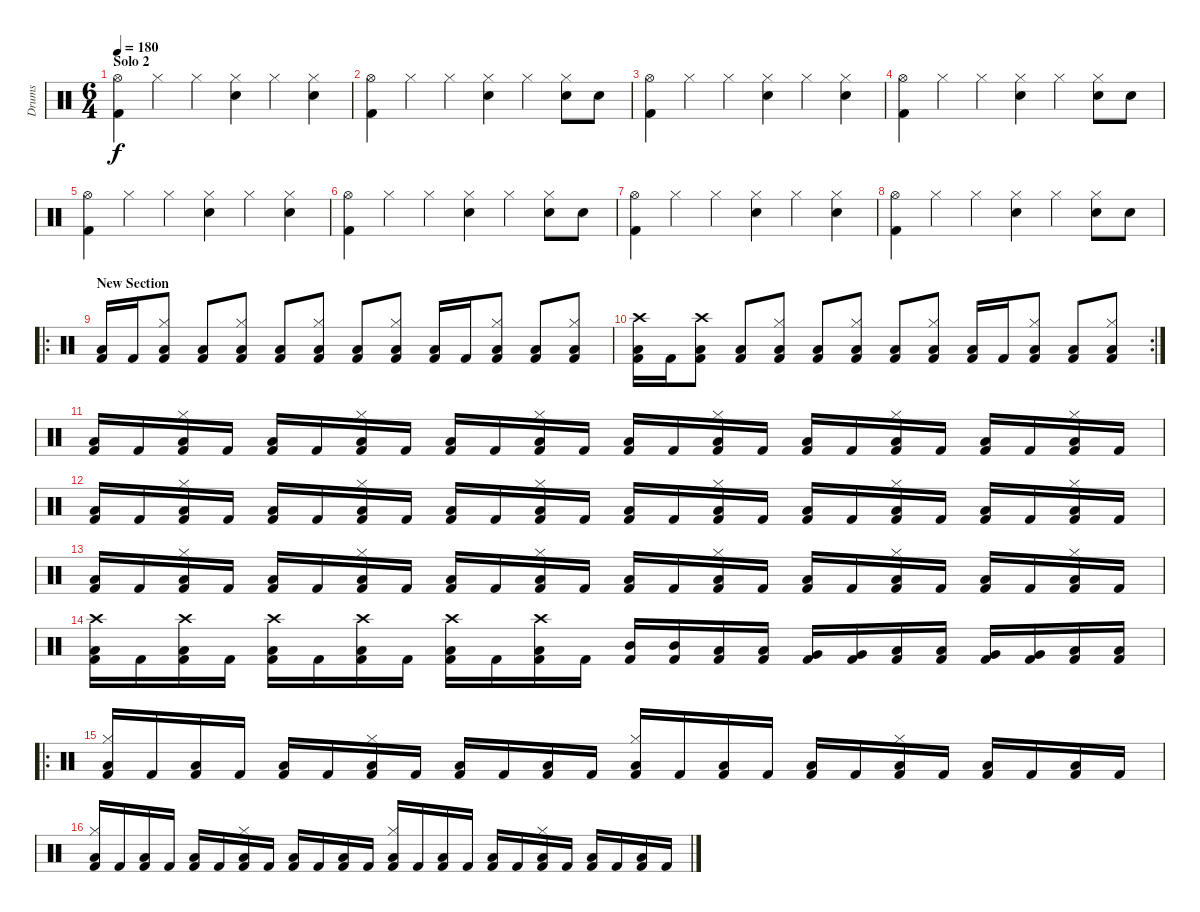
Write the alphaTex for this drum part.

\track ("Drums" "Drums") {instrument percussion}
\staff {score}
\articulation defaults
\ts (6 4)
\section ("" "Solo 2")
\tempo 180
\clef neutral
\ks c
("Hi-Hat (open)" "Kick (hit) 2").4{dy f} "Hi-Hat (closed)".4 "Hi-Hat (closed)".4 ("Hi-Hat (closed)" "Snare (hit) 2").4 "Hi-Hat (closed)".4 ("Hi-Hat (closed)" "Snare (hit) 2").4 |
("Hi-Hat (open)" "Kick (hit) 2").4 "Hi-Hat (closed)".4 "Hi-Hat (closed)".4 ("Hi-Hat (closed)" "Snare (hit) 2").4 "Hi-Hat (closed)".4 ("Hi-Hat (closed)" "Snare (hit) 2").8 "Snare (hit) 2".8 |
("Hi-Hat (open)" "Kick (hit) 2").4 "Hi-Hat (closed)".4 "Hi-Hat (closed)".4 ("Hi-Hat (closed)" "Snare (hit) 2").4 "Hi-Hat (closed)".4 ("Hi-Hat (closed)" "Snare (hit) 2").4 |
("Hi-Hat (open)" "Kick (hit) 2").4 "Hi-Hat (closed)".4 "Hi-Hat (closed)".4 ("Hi-Hat (closed)" "Snare (hit) 2").4 "Hi-Hat (closed)".4 ("Hi-Hat (closed)" "Snare (hit) 2").8 "Snare (hit) 2".8 |
("Hi-Hat (open)" "Kick (hit) 2").4 "Hi-Hat (closed)".4 "Hi-Hat (closed)".4 ("Hi-Hat (closed)" "Snare (hit) 2").4 "Hi-Hat (closed)".4 ("Hi-Hat (closed)" "Snare (hit) 2").4 |
("Hi-Hat (open)" "Kick (hit) 2").4 "Hi-Hat (closed)".4 "Hi-Hat (closed)".4 ("Hi-Hat (closed)" "Snare (hit) 2").4 "Hi-Hat (closed)".4 ("Hi-Hat (closed)" "Snare (hit) 2").8 "Snare (hit) 2".8 |
("Hi-Hat (open)" "Kick (hit) 2").4 "Hi-Hat (closed)".4 "Hi-Hat (closed)".4 ("Hi-Hat (closed)" "Snare (hit) 2").4 "Hi-Hat (closed)".4 ("Hi-Hat (closed)" "Snare (hit) 2").4 |
("Hi-Hat (open)" "Kick (hit) 2").4 "Hi-Hat (closed)".4 "Hi-Hat (closed)".4 ("Hi-Hat (closed)" "Snare (hit) 2").4 "Hi-Hat (closed)".4 ("Hi-Hat (closed)" "Snare (hit) 2").8 "Snare (hit) 2".8 |
\ro
\section ("" "New Section")
("Low Floor Tom (hit)" "Kick (hit) 2").16 "Kick (hit) 2".16 ("Hi-Hat (closed)" "Low Floor Tom (hit)" "Kick (hit) 2").8 ("Low Floor Tom (hit)" "Kick (hit) 2").8 ("Hi-Hat (closed)" "Low Floor Tom (hit)" "Kick (hit) 2").8 ("Low Floor Tom (hit)" "Kick (hit) 2").8 ("Hi-Hat (closed)" "Low Floor Tom (hit)" "Kick (hit) 2").8 ("Low Floor Tom (hit)" "Kick (hit) 2").8 ("Hi-Hat (closed)" "Low Floor Tom (hit)" "Kick (hit) 2").8 ("Low Floor Tom (hit)" "Kick (hit) 2").16 "Kick (hit) 2".16 ("Hi-Hat (closed)" "Low Floor Tom (hit)" "Kick (hit) 2").8 ("Low Floor Tom (hit)" "Kick (hit) 2").8 ("Hi-Hat (closed)" "Low Floor Tom (hit)" "Kick (hit) 2").8 |
\rc 2
("Crash high (hit)" "Low Floor Tom (hit)" "Kick (hit) 2").16 "Kick (hit) 2".16 ("Crash high (hit)" "Low Floor Tom (hit)" "Kick (hit) 2").8 ("Low Floor Tom (hit)" "Kick (hit) 2").8 ("Hi-Hat (closed)" "Low Floor Tom (hit)" "Kick (hit) 2").8 ("Low Floor Tom (hit)" "Kick (hit) 2").8 ("Hi-Hat (closed)" "Low Floor Tom (hit)" "Kick (hit) 2").8 ("Low Floor Tom (hit)" "Kick (hit) 2").8 ("Hi-Hat (closed)" "Low Floor Tom (hit)" "Kick (hit) 2").8 ("Low Floor Tom (hit)" "Kick (hit) 2").16 "Kick (hit) 2".16 ("Hi-Hat (closed)" "Low Floor Tom (hit)" "Kick (hit) 2").8 ("Low Floor Tom (hit)" "Kick (hit) 2").8 ("Hi-Hat (closed)" "Low Floor Tom (hit)" "Kick (hit) 2").8 |
("Low Floor Tom (hit)" "Kick (hit) 2").16 "Kick (hit) 2".16 ("Hi-Hat (closed)" "Low Floor Tom (hit)" "Kick (hit) 2").16 "Kick (hit) 2".16 ("Low Floor Tom (hit)" "Kick (hit) 2").16 "Kick (hit) 2".16 ("Hi-Hat (closed)" "Low Floor Tom (hit)" "Kick (hit) 2").16 "Kick (hit) 2".16 ("Low Floor Tom (hit)" "Kick (hit) 2").16 "Kick (hit) 2".16 ("Hi-Hat (closed)" "Low Floor Tom (hit)" "Kick (hit) 2").16 "Kick (hit) 2".16 ("Low Floor Tom (hit)" "Kick (hit) 2").16 "Kick (hit) 2".16 ("Hi-Hat (closed)" "Low Floor Tom (hit)" "Kick (hit) 2").16 "Kick (hit) 2".16 ("Low Floor Tom (hit)" "Kick (hit) 2").16 "Kick (hit) 2".16 ("Hi-Hat (closed)" "Low Floor Tom (hit)" "Kick (hit) 2").16 "Kick (hit) 2".16 ("Low Floor Tom (hit)" "Kick (hit) 2").16 "Kick (hit) 2".16 ("Hi-Hat (closed)" "Low Floor Tom (hit)" "Kick (hit) 2").16 "Kick (hit) 2".16 |
("Low Floor Tom (hit)" "Kick (hit) 2").16 "Kick (hit) 2".16 ("Hi-Hat (closed)" "Low Floor Tom (hit)" "Kick (hit) 2").16 "Kick (hit) 2".16 ("Low Floor Tom (hit)" "Kick (hit) 2").16 "Kick (hit) 2".16 ("Hi-Hat (closed)" "Low Floor Tom (hit)" "Kick (hit) 2").16 "Kick (hit) 2".16 ("Low Floor Tom (hit)" "Kick (hit) 2").16 "Kick (hit) 2".16 ("Hi-Hat (closed)" "Low Floor Tom (hit)" "Kick (hit) 2").16 "Kick (hit) 2".16 ("Low Floor Tom (hit)" "Kick (hit) 2").16 "Kick (hit) 2".16 ("Hi-Hat (closed)" "Low Floor Tom (hit)" "Kick (hit) 2").16 "Kick (hit) 2".16 ("Low Floor Tom (hit)" "Kick (hit) 2").16 "Kick (hit) 2".16 ("Hi-Hat (closed)" "Low Floor Tom (hit)" "Kick (hit) 2").16 "Kick (hit) 2".16 ("Low Floor Tom (hit)" "Kick (hit) 2").16 "Kick (hit) 2".16 ("Hi-Hat (closed)" "Low Floor Tom (hit)" "Kick (hit) 2").16 "Kick (hit) 2".16 |
("Low Floor Tom (hit)" "Kick (hit) 2").16 "Kick (hit) 2".16 ("Hi-Hat (closed)" "Low Floor Tom (hit)" "Kick (hit) 2").16 "Kick (hit) 2".16 ("Low Floor Tom (hit)" "Kick (hit) 2").16 "Kick (hit) 2".16 ("Hi-Hat (closed)" "Low Floor Tom (hit)" "Kick (hit) 2").16 "Kick (hit) 2".16 ("Low Floor Tom (hit)" "Kick (hit) 2").16 "Kick (hit) 2".16 ("Hi-Hat (closed)" "Low Floor Tom (hit)" "Kick (hit) 2").16 "Kick (hit) 2".16 ("Low Floor Tom (hit)" "Kick (hit) 2").16 "Kick (hit) 2".16 ("Hi-Hat (closed)" "Low Floor Tom (hit)" "Kick (hit) 2").16 "Kick (hit) 2".16 ("Low Floor Tom (hit)" "Kick (hit) 2").16 "Kick (hit) 2".16 ("Hi-Hat (closed)" "Low Floor Tom (hit)" "Kick (hit) 2").16 "Kick (hit) 2".16 ("Low Floor Tom (hit)" "Kick (hit) 2").16 "Kick (hit) 2".16 ("Hi-Hat (closed)" "Low Floor Tom (hit)" "Kick (hit) 2").16 "Kick (hit) 2".16 |
("Crash high (hit)" "Low Floor Tom (hit)" "Kick (hit) 2").16 "Kick (hit) 2".16 ("Crash high (hit)" "Low Floor Tom (hit)" "Kick (hit) 2").16 "Kick (hit) 2".16 ("Crash high (hit)" "Low Floor Tom (hit)" "Kick (hit) 2").16 "Kick (hit) 2".16 ("Crash high (hit)" "Low Floor Tom (hit)" "Kick (hit) 2").16 "Kick (hit) 2".16 ("Crash high (hit)" "Low Floor Tom (hit)" "Kick (hit) 2").16 "Kick (hit) 2".16 ("Crash high (hit)" "Low Floor Tom (hit)" "Kick (hit) 2").16 "Kick (hit) 2".16 ("Mid Tom (hit)" "Kick (hit) 2").16 ("Mid Tom (hit)" "Kick (hit) 2").16 ("Low Tom (hit)" "Kick (hit) 2").16 ("Low Tom (hit)" "Kick (hit) 2").16 ("Very Low Tom (hit)" "Kick (hit) 2").16 ("Very Low Tom (hit)" "Kick (hit) 2").16 ("Low Tom (hit)" "Kick (hit) 2").16 ("Low Tom (hit)" "Kick (hit) 2").16 ("Very Low Tom (hit)" "Kick (hit) 2").16 ("Very Low Tom (hit)" "Kick (hit) 2").16 ("Low Floor Tom (hit)" "Kick (hit) 2").16 ("Low Floor Tom (hit)" "Kick (hit) 2").16 |
\ro
("Hi-Hat (closed)" "Low Floor Tom (hit)" "Kick (hit) 2").16 "Kick (hit) 2".16 ("Low Floor Tom (hit)" "Kick (hit) 2").16 "Kick (hit) 2".16 ("Low Floor Tom (hit)" "Kick (hit) 2").16 "Kick (hit) 2".16 ("Hi-Hat (closed)" "Low Floor Tom (hit)" "Kick (hit) 2").16 "Kick (hit) 2".16 ("Low Floor Tom (hit)" "Kick (hit) 2").16 "Kick (hit) 2".16 ("Low Floor Tom (hit)" "Kick (hit) 2").16 "Kick (hit) 2".16 ("Hi-Hat (closed)" "Low Floor Tom (hit)" "Kick (hit) 2").16 "Kick (hit) 2".16 ("Low Floor Tom (hit)" "Kick (hit) 2").16 "Kick (hit) 2".16 ("Low Floor Tom (hit)" "Kick (hit) 2").16 "Kick (hit) 2".16 ("Hi-Hat (closed)" "Low Floor Tom (hit)" "Kick (hit) 2").16 "Kick (hit) 2".16 ("Low Floor Tom (hit)" "Kick (hit) 2").16 "Kick (hit) 2".16 ("Low Floor Tom (hit)" "Kick (hit) 2").16 "Kick (hit) 2".16 |
("Hi-Hat (closed)" "Low Floor Tom (hit)" "Kick (hit) 2").16 "Kick (hit) 2".16 ("Low Floor Tom (hit)" "Kick (hit) 2").16 "Kick (hit) 2".16 ("Low Floor Tom (hit)" "Kick (hit) 2").16 "Kick (hit) 2".16 ("Hi-Hat (closed)" "Low Floor Tom (hit)" "Kick (hit) 2").16 "Kick (hit) 2".16 ("Low Floor Tom (hit)" "Kick (hit) 2").16 "Kick (hit) 2".16 ("Low Floor Tom (hit)" "Kick (hit) 2").16 "Kick (hit) 2".16 ("Hi-Hat (closed)" "Low Floor Tom (hit)" "Kick (hit) 2").16 "Kick (hit) 2".16 ("Low Floor Tom (hit)" "Kick (hit) 2").16 "Kick (hit) 2".16 ("Low Floor Tom (hit)" "Kick (hit) 2").16 "Kick (hit) 2".16 ("Hi-Hat (closed)" "Low Floor Tom (hit)" "Kick (hit) 2").16 "Kick (hit) 2".16 ("Low Floor Tom (hit)" "Kick (hit) 2").16 "Kick (hit) 2".16 ("Low Floor Tom (hit)" "Kick (hit) 2").16 "Kick (hit) 2".16
